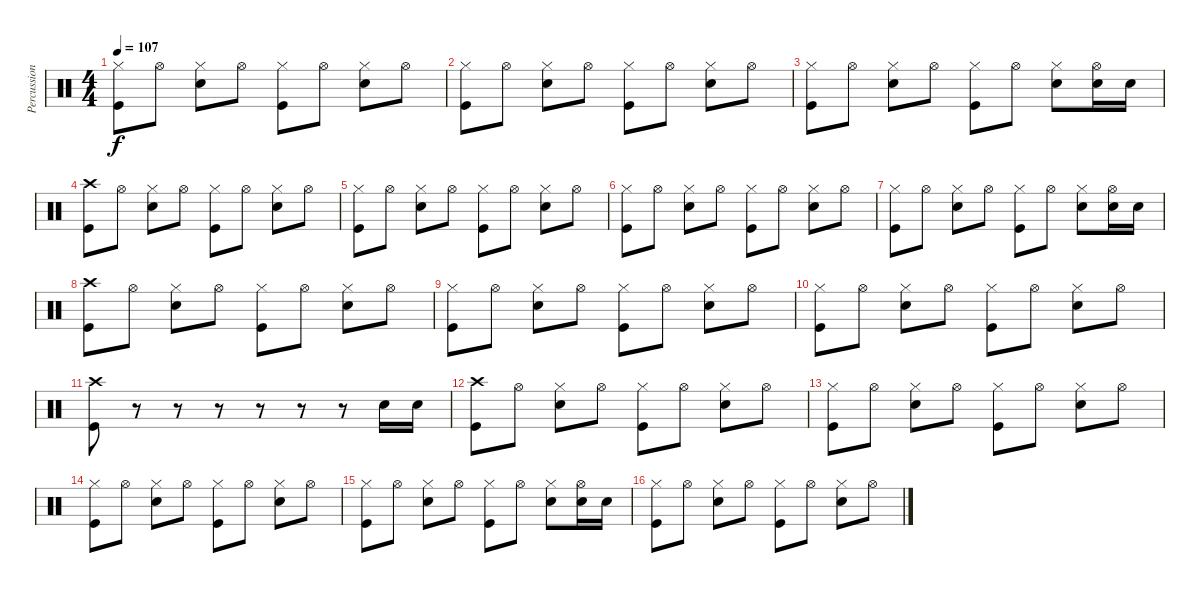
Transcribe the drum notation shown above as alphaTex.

\track ("Percussion" "Percussion") {instrument percussion}
\staff {score}
\articulation defaults
\ts (4 4)
\tempo 107
\clef neutral
\ks c
("Hi-Hat (closed)" "Kick (hit)").8{dy f} "Hi-Hat (open)".8 ("Hi-Hat (closed)" "Snare (hit) 2").8 "Hi-Hat (open)".8 ("Hi-Hat (closed)" "Kick (hit)").8 "Hi-Hat (open)".8 ("Hi-Hat (closed)" "Snare (hit) 2").8 "Hi-Hat (open)".8 |
("Hi-Hat (closed)" "Kick (hit)").8 "Hi-Hat (open)".8 ("Hi-Hat (closed)" "Snare (hit) 2").8 "Hi-Hat (open)".8 ("Hi-Hat (closed)" "Kick (hit)").8 "Hi-Hat (open)".8 ("Hi-Hat (closed)" "Snare (hit) 2").8 "Hi-Hat (open)".8 |
("Hi-Hat (closed)" "Kick (hit)").8 "Hi-Hat (open)".8 ("Hi-Hat (closed)" "Snare (hit) 2").8 "Hi-Hat (open)".8 ("Hi-Hat (closed)" "Kick (hit)").8 "Hi-Hat (open)".8 ("Hi-Hat (closed)" "Snare (hit) 2").8 ("Hi-Hat (open)" "Snare (hit) 2").16 "Snare (hit) 2".16 |
("Crash high (hit)" "Kick (hit)").8 "Hi-Hat (open)".8 ("Hi-Hat (closed)" "Snare (hit) 2").8 "Hi-Hat (open)".8 ("Hi-Hat (closed)" "Kick (hit)").8 "Hi-Hat (open)".8 ("Hi-Hat (closed)" "Snare (hit) 2").8 "Hi-Hat (open)".8 |
("Hi-Hat (closed)" "Kick (hit)").8 "Hi-Hat (open)".8 ("Hi-Hat (closed)" "Snare (hit) 2").8 "Hi-Hat (open)".8 ("Hi-Hat (closed)" "Kick (hit)").8 "Hi-Hat (open)".8 ("Hi-Hat (closed)" "Snare (hit) 2").8 "Hi-Hat (open)".8 |
("Hi-Hat (closed)" "Kick (hit)").8 "Hi-Hat (open)".8 ("Hi-Hat (closed)" "Snare (hit) 2").8 "Hi-Hat (open)".8 ("Hi-Hat (closed)" "Kick (hit)").8 "Hi-Hat (open)".8 ("Hi-Hat (closed)" "Snare (hit) 2").8 "Hi-Hat (open)".8 |
("Hi-Hat (closed)" "Kick (hit)").8 "Hi-Hat (open)".8 ("Hi-Hat (closed)" "Snare (hit) 2").8 "Hi-Hat (open)".8 ("Hi-Hat (closed)" "Kick (hit)").8 "Hi-Hat (open)".8 ("Hi-Hat (closed)" "Snare (hit) 2").8 ("Hi-Hat (open)" "Snare (hit) 2").16 "Snare (hit) 2".16 |
("Crash high (hit)" "Kick (hit)").8 "Hi-Hat (open)".8 ("Hi-Hat (closed)" "Snare (hit) 2").8 "Hi-Hat (open)".8 ("Hi-Hat (closed)" "Kick (hit)").8 "Hi-Hat (open)".8 ("Hi-Hat (closed)" "Snare (hit) 2").8 "Hi-Hat (open)".8 |
("Hi-Hat (closed)" "Kick (hit)").8 "Hi-Hat (open)".8 ("Hi-Hat (closed)" "Snare (hit) 2").8 "Hi-Hat (open)".8 ("Hi-Hat (closed)" "Kick (hit)").8 "Hi-Hat (open)".8 ("Hi-Hat (closed)" "Snare (hit) 2").8 "Hi-Hat (open)".8 |
("Hi-Hat (closed)" "Kick (hit)").8 "Hi-Hat (open)".8 ("Hi-Hat (closed)" "Snare (hit) 2").8 "Hi-Hat (open)".8 ("Hi-Hat (closed)" "Kick (hit)").8 "Hi-Hat (open)".8 ("Hi-Hat (closed)" "Snare (hit) 2").8 "Hi-Hat (open)".8 |
("Crash high (hit)" "Kick (hit)").8 r.8 r.8 r.8 r.8 r.8 r.8 "Snare (hit) 2".16 "Snare (hit) 2".16 |
("Crash high (hit)" "Kick (hit)").8 "Hi-Hat (open)".8 ("Hi-Hat (closed)" "Snare (hit) 2").8 "Hi-Hat (open)".8 ("Hi-Hat (closed)" "Kick (hit)").8 "Hi-Hat (open)".8 ("Hi-Hat (closed)" "Snare (hit) 2").8 "Hi-Hat (open)".8 |
("Hi-Hat (closed)" "Kick (hit)").8 "Hi-Hat (open)".8 ("Hi-Hat (closed)" "Snare (hit) 2").8 "Hi-Hat (open)".8 ("Hi-Hat (closed)" "Kick (hit)").8 "Hi-Hat (open)".8 ("Hi-Hat (closed)" "Snare (hit) 2").8 "Hi-Hat (open)".8 |
("Hi-Hat (closed)" "Kick (hit)").8 "Hi-Hat (open)".8 ("Hi-Hat (closed)" "Snare (hit) 2").8 "Hi-Hat (open)".8 ("Hi-Hat (closed)" "Kick (hit)").8 "Hi-Hat (open)".8 ("Hi-Hat (closed)" "Snare (hit) 2").8 "Hi-Hat (open)".8 |
("Hi-Hat (closed)" "Kick (hit)").8 "Hi-Hat (open)".8 ("Hi-Hat (closed)" "Snare (hit) 2").8 "Hi-Hat (open)".8 ("Hi-Hat (closed)" "Kick (hit)").8 "Hi-Hat (open)".8 ("Hi-Hat (closed)" "Snare (hit) 2").8 ("Hi-Hat (open)" "Snare (hit) 2").16 "Snare (hit) 2".16 |
("Hi-Hat (closed)" "Kick (hit)").8 "Hi-Hat (open)".8 ("Hi-Hat (closed)" "Snare (hit) 2").8 "Hi-Hat (open)".8 ("Hi-Hat (closed)" "Kick (hit)").8 "Hi-Hat (open)".8 ("Hi-Hat (closed)" "Snare (hit) 2").8 "Hi-Hat (open)".8
